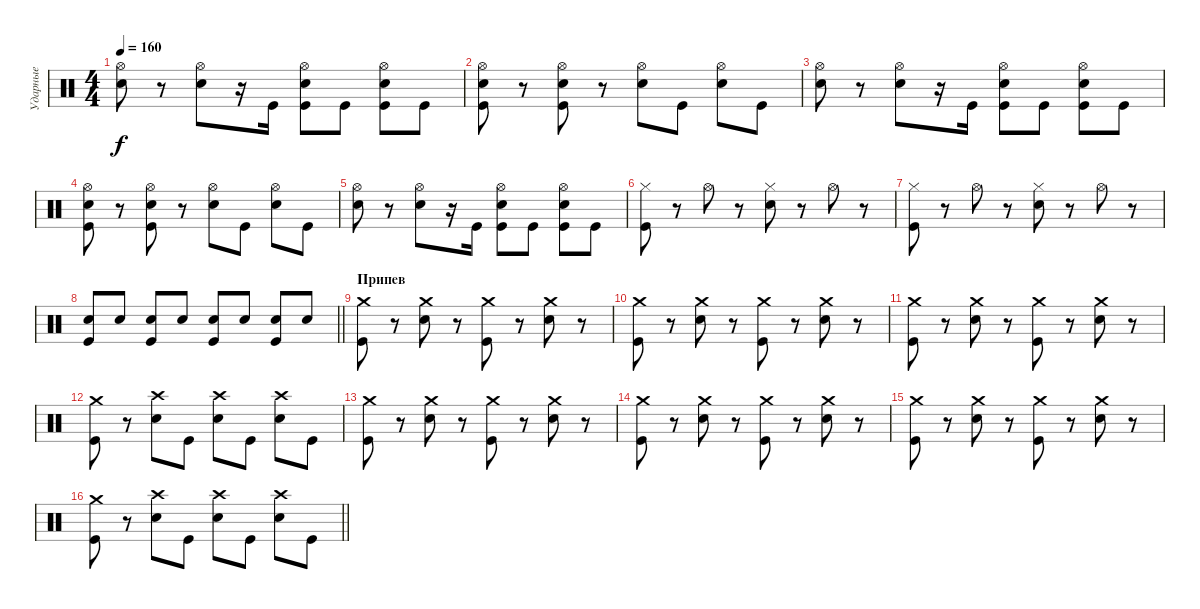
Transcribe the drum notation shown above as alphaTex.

\track ("Ударные" "Ударные") {instrument percussion}
\staff {score}
\articulation defaults
\ts (4 4)
\tempo 160
\clef neutral
\ks c
("Hi-Hat (open)" "Electric Snare (hit)").8{dy f} r.8 ("Hi-Hat (open)" "Electric Snare (hit)").8 r.16 "Kick (hit)".16 ("Hi-Hat (open)" "Electric Snare (hit)" "Kick (hit)").8 "Kick (hit)".8 ("Hi-Hat (open)" "Electric Snare (hit)" "Kick (hit)").8 "Kick (hit)".8 |
("Hi-Hat (open)" "Electric Snare (hit)" "Kick (hit)").8 r.8 ("Hi-Hat (open)" "Electric Snare (hit)" "Kick (hit)").8 r.8 ("Hi-Hat (open)" "Electric Snare (hit)").8 "Kick (hit)".8 ("Hi-Hat (open)" "Electric Snare (hit)").8 "Kick (hit)".8 |
("Hi-Hat (open)" "Electric Snare (hit)").8 r.8 ("Hi-Hat (open)" "Electric Snare (hit)").8 r.16 "Kick (hit)".16 ("Hi-Hat (open)" "Electric Snare (hit)" "Kick (hit)").8 "Kick (hit)".8 ("Hi-Hat (open)" "Electric Snare (hit)" "Kick (hit)").8 "Kick (hit)".8 |
("Hi-Hat (open)" "Electric Snare (hit)" "Kick (hit)").8 r.8 ("Hi-Hat (open)" "Electric Snare (hit)" "Kick (hit)").8 r.8 ("Hi-Hat (open)" "Electric Snare (hit)").8 "Kick (hit)".8 ("Hi-Hat (open)" "Electric Snare (hit)").8 "Kick (hit)".8 |
("Hi-Hat (open)" "Electric Snare (hit)").8 r.8 ("Hi-Hat (open)" "Electric Snare (hit)").8 r.16 "Kick (hit)".16 ("Hi-Hat (open)" "Electric Snare (hit)" "Kick (hit)").8 "Kick (hit)".8 ("Hi-Hat (open)" "Electric Snare (hit)" "Kick (hit)").8 "Kick (hit)".8 |
("Hi-Hat (closed)" "Kick (hit)").8 r.8 "Hi-Hat (open)".8 r.8 ("Hi-Hat (closed)" "Electric Snare (hit)").8 r.8 "Hi-Hat (open)".8 r.8 |
("Hi-Hat (closed)" "Kick (hit)").8 r.8 "Hi-Hat (open)".8 r.8 ("Hi-Hat (closed)" "Electric Snare (hit)").8 r.8 "Hi-Hat (open)".8 r.8 |
\barLineRight lightlight
("Electric Snare (hit)" "Kick (hit)").8 "Electric Snare (hit)".8 ("Electric Snare (hit)" "Kick (hit)").8 "Electric Snare (hit)".8 ("Electric Snare (hit)" "Kick (hit)").8 "Electric Snare (hit)".8 ("Electric Snare (hit)" "Kick (hit)").8 "Electric Snare (hit)".8 |
\section ("" "Припев")
("Crash medium (hit)" "Kick (hit)").8 r.8 ("Crash medium (hit)" "Electric Snare (hit)").8 r.8 ("Crash medium (hit)" "Kick (hit)").8 r.8 ("Crash medium (hit)" "Electric Snare (hit)").8 r.8 |
("Crash medium (hit)" "Kick (hit)").8 r.8 ("Crash medium (hit)" "Electric Snare (hit)").8 r.8 ("Crash medium (hit)" "Kick (hit)").8 r.8 ("Crash medium (hit)" "Electric Snare (hit)").8 r.8 |
("Crash medium (hit)" "Kick (hit)").8 r.8 ("Crash medium (hit)" "Electric Snare (hit)").8 r.8 ("Crash medium (hit)" "Kick (hit)").8 r.8 ("Crash medium (hit)" "Electric Snare (hit)").8 r.8 |
("Crash medium (hit)" "Kick (hit)").8 r.8 ("Crash high (hit)" "Electric Snare (hit)").8 "Kick (hit)".8 ("Crash high (hit)" "Electric Snare (hit)").8 "Kick (hit)".8 ("Crash high (hit)" "Electric Snare (hit)").8 "Kick (hit)".8 |
("Crash medium (hit)" "Kick (hit)").8 r.8 ("Crash medium (hit)" "Electric Snare (hit)").8 r.8 ("Crash medium (hit)" "Kick (hit)").8 r.8 ("Crash medium (hit)" "Electric Snare (hit)").8 r.8 |
("Crash medium (hit)" "Kick (hit)").8 r.8 ("Crash medium (hit)" "Electric Snare (hit)").8 r.8 ("Crash medium (hit)" "Kick (hit)").8 r.8 ("Crash medium (hit)" "Electric Snare (hit)").8 r.8 |
("Crash medium (hit)" "Kick (hit)").8 r.8 ("Crash medium (hit)" "Electric Snare (hit)").8 r.8 ("Crash medium (hit)" "Kick (hit)").8 r.8 ("Crash medium (hit)" "Electric Snare (hit)").8 r.8 |
\barLineRight lightlight
("Crash medium (hit)" "Kick (hit)").8 r.8 ("Crash high (hit)" "Electric Snare (hit)").8 "Kick (hit)".8 ("Crash high (hit)" "Electric Snare (hit)").8 "Kick (hit)".8 ("Crash high (hit)" "Electric Snare (hit)").8 "Kick (hit)".8
